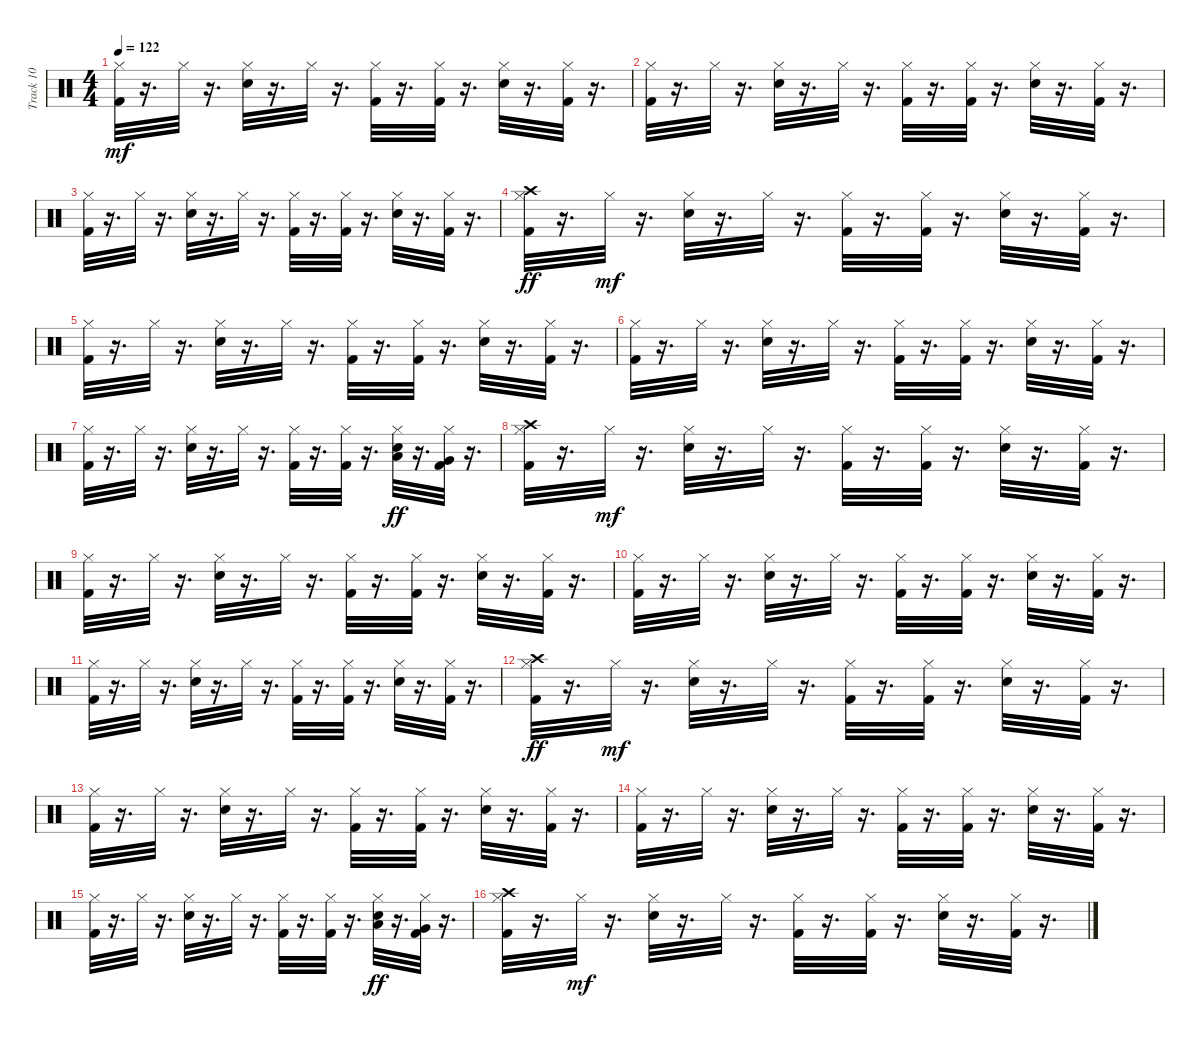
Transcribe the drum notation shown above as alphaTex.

\track ("Track 10" "Track 10") {instrument percussion}
\staff {score}
\articulation defaults
\ts (4 4)
\tempo 122
\clef neutral
\ks c
("Kick (hit) 2" "Hi-Hat (closed)").32{dy mf} r.16{d} "Hi-Hat (closed)".32 r.16{d} ("Electric Snare (hit)" "Hi-Hat (closed)").32 r.16{d} "Hi-Hat (closed)".32 r.16{d} ("Kick (hit) 2" "Hi-Hat (closed)").32 r.16{d} ("Kick (hit) 2" "Hi-Hat (closed)").32 r.16{d} ("Electric Snare (hit)" "Hi-Hat (closed)").32 r.16{d} ("Kick (hit) 2" "Hi-Hat (closed)").32 r.16{d} |
("Kick (hit) 2" "Hi-Hat (closed)").32 r.16{d} "Hi-Hat (closed)".32 r.16{d} ("Electric Snare (hit)" "Hi-Hat (closed)").32 r.16{d} "Hi-Hat (closed)".32 r.16{d} ("Kick (hit) 2" "Hi-Hat (closed)").32 r.16{d} ("Kick (hit) 2" "Hi-Hat (closed)").32 r.16{d} ("Electric Snare (hit)" "Hi-Hat (closed)").32 r.16{d} ("Kick (hit) 2" "Hi-Hat (closed)").32 r.16{d} |
("Kick (hit) 2" "Hi-Hat (closed)").32 r.16{d} "Hi-Hat (closed)".32 r.16{d} ("Electric Snare (hit)" "Hi-Hat (closed)").32 r.16{d} "Hi-Hat (closed)".32 r.16{d} ("Kick (hit) 2" "Hi-Hat (closed)").32 r.16{d} ("Kick (hit) 2" "Hi-Hat (closed)").32 r.16{d} ("Electric Snare (hit)" "Hi-Hat (closed)").32 r.16{d} ("Kick (hit) 2" "Hi-Hat (closed)").32 r.16{d} |
("Kick (hit) 2" "Hi-Hat (closed)" "Crash high (hit)").32{dy ff} r.16{d} "Hi-Hat (closed)".32{dy mf} r.16{d} ("Electric Snare (hit)" "Hi-Hat (closed)").32 r.16{d} "Hi-Hat (closed)".32 r.16{d} ("Kick (hit) 2" "Hi-Hat (closed)").32 r.16{d} ("Kick (hit) 2" "Hi-Hat (closed)").32 r.16{d} ("Electric Snare (hit)" "Hi-Hat (closed)").32 r.16{d} ("Kick (hit) 2" "Hi-Hat (closed)").32 r.16{d} |
("Kick (hit) 2" "Hi-Hat (closed)").32 r.16{d} "Hi-Hat (closed)".32 r.16{d} ("Electric Snare (hit)" "Hi-Hat (closed)").32 r.16{d} "Hi-Hat (closed)".32 r.16{d} ("Kick (hit) 2" "Hi-Hat (closed)").32 r.16{d} ("Kick (hit) 2" "Hi-Hat (closed)").32 r.16{d} ("Electric Snare (hit)" "Hi-Hat (closed)").32 r.16{d} ("Kick (hit) 2" "Hi-Hat (closed)").32 r.16{d} |
("Kick (hit) 2" "Hi-Hat (closed)").32 r.16{d} "Hi-Hat (closed)".32 r.16{d} ("Electric Snare (hit)" "Hi-Hat (closed)").32 r.16{d} "Hi-Hat (closed)".32 r.16{d} ("Kick (hit) 2" "Hi-Hat (closed)").32 r.16{d} ("Kick (hit) 2" "Hi-Hat (closed)").32 r.16{d} ("Electric Snare (hit)" "Hi-Hat (closed)").32 r.16{d} ("Kick (hit) 2" "Hi-Hat (closed)").32 r.16{d} |
("Kick (hit) 2" "Hi-Hat (closed)").32 r.16{d} "Hi-Hat (closed)".32 r.16{d} ("Electric Snare (hit)" "Hi-Hat (closed)").32 r.16{d} "Hi-Hat (closed)".32 r.16{d} ("Kick (hit) 2" "Hi-Hat (closed)").32 r.16{d} ("Kick (hit) 2" "Hi-Hat (closed)").32 r.16{d} ("Electric Snare (hit)" "Hi-Hat (closed)" "Low Tom (hit)").32{dy ff} r.16{d} ("Kick (hit) 2" "Hi-Hat (closed)" "Very Low Tom (hit)").32 r.16{d} |
("Kick (hit) 2" "Hi-Hat (closed)" "Crash high (hit)").32 r.16{d} "Hi-Hat (closed)".32{dy mf} r.16{d} ("Electric Snare (hit)" "Hi-Hat (closed)").32 r.16{d} "Hi-Hat (closed)".32 r.16{d} ("Kick (hit) 2" "Hi-Hat (closed)").32 r.16{d} ("Kick (hit) 2" "Hi-Hat (closed)").32 r.16{d} ("Electric Snare (hit)" "Hi-Hat (closed)").32 r.16{d} ("Kick (hit) 2" "Hi-Hat (closed)").32 r.16{d} |
("Kick (hit) 2" "Hi-Hat (closed)").32 r.16{d} "Hi-Hat (closed)".32 r.16{d} ("Electric Snare (hit)" "Hi-Hat (closed)").32 r.16{d} "Hi-Hat (closed)".32 r.16{d} ("Kick (hit) 2" "Hi-Hat (closed)").32 r.16{d} ("Kick (hit) 2" "Hi-Hat (closed)").32 r.16{d} ("Electric Snare (hit)" "Hi-Hat (closed)").32 r.16{d} ("Kick (hit) 2" "Hi-Hat (closed)").32 r.16{d} |
("Kick (hit) 2" "Hi-Hat (closed)").32 r.16{d} "Hi-Hat (closed)".32 r.16{d} ("Electric Snare (hit)" "Hi-Hat (closed)").32 r.16{d} "Hi-Hat (closed)".32 r.16{d} ("Kick (hit) 2" "Hi-Hat (closed)").32 r.16{d} ("Kick (hit) 2" "Hi-Hat (closed)").32 r.16{d} ("Electric Snare (hit)" "Hi-Hat (closed)").32 r.16{d} ("Kick (hit) 2" "Hi-Hat (closed)").32 r.16{d} |
("Kick (hit) 2" "Hi-Hat (closed)").32 r.16{d} "Hi-Hat (closed)".32 r.16{d} ("Electric Snare (hit)" "Hi-Hat (closed)").32 r.16{d} "Hi-Hat (closed)".32 r.16{d} ("Kick (hit) 2" "Hi-Hat (closed)").32 r.16{d} ("Kick (hit) 2" "Hi-Hat (closed)").32 r.16{d} ("Electric Snare (hit)" "Hi-Hat (closed)").32 r.16{d} ("Kick (hit) 2" "Hi-Hat (closed)").32 r.16{d} |
("Kick (hit) 2" "Hi-Hat (closed)" "Crash high (hit)").32{dy ff} r.16{d} "Hi-Hat (closed)".32{dy mf} r.16{d} ("Electric Snare (hit)" "Hi-Hat (closed)").32 r.16{d} "Hi-Hat (closed)".32 r.16{d} ("Kick (hit) 2" "Hi-Hat (closed)").32 r.16{d} ("Kick (hit) 2" "Hi-Hat (closed)").32 r.16{d} ("Electric Snare (hit)" "Hi-Hat (closed)").32 r.16{d} ("Kick (hit) 2" "Hi-Hat (closed)").32 r.16{d} |
("Kick (hit) 2" "Hi-Hat (closed)").32 r.16{d} "Hi-Hat (closed)".32 r.16{d} ("Electric Snare (hit)" "Hi-Hat (closed)").32 r.16{d} "Hi-Hat (closed)".32 r.16{d} ("Kick (hit) 2" "Hi-Hat (closed)").32 r.16{d} ("Kick (hit) 2" "Hi-Hat (closed)").32 r.16{d} ("Electric Snare (hit)" "Hi-Hat (closed)").32 r.16{d} ("Kick (hit) 2" "Hi-Hat (closed)").32 r.16{d} |
("Kick (hit) 2" "Hi-Hat (closed)").32 r.16{d} "Hi-Hat (closed)".32 r.16{d} ("Electric Snare (hit)" "Hi-Hat (closed)").32 r.16{d} "Hi-Hat (closed)".32 r.16{d} ("Kick (hit) 2" "Hi-Hat (closed)").32 r.16{d} ("Kick (hit) 2" "Hi-Hat (closed)").32 r.16{d} ("Electric Snare (hit)" "Hi-Hat (closed)").32 r.16{d} ("Kick (hit) 2" "Hi-Hat (closed)").32 r.16{d} |
("Kick (hit) 2" "Hi-Hat (closed)").32 r.16{d} "Hi-Hat (closed)".32 r.16{d} ("Electric Snare (hit)" "Hi-Hat (closed)").32 r.16{d} "Hi-Hat (closed)".32 r.16{d} ("Kick (hit) 2" "Hi-Hat (closed)").32 r.16{d} ("Kick (hit) 2" "Hi-Hat (closed)").32 r.16{d} ("Electric Snare (hit)" "Hi-Hat (closed)" "Low Tom (hit)").32{dy ff} r.16{d} ("Kick (hit) 2" "Hi-Hat (closed)" "Very Low Tom (hit)").32 r.16{d} |
("Kick (hit) 2" "Hi-Hat (closed)" "Crash high (hit)").32 r.16{d} "Hi-Hat (closed)".32{dy mf} r.16{d} ("Electric Snare (hit)" "Hi-Hat (closed)").32 r.16{d} "Hi-Hat (closed)".32 r.16{d} ("Kick (hit) 2" "Hi-Hat (closed)").32 r.16{d} ("Kick (hit) 2" "Hi-Hat (closed)").32 r.16{d} ("Electric Snare (hit)" "Hi-Hat (closed)").32 r.16{d} ("Kick (hit) 2" "Hi-Hat (closed)").32 r.16{d}
